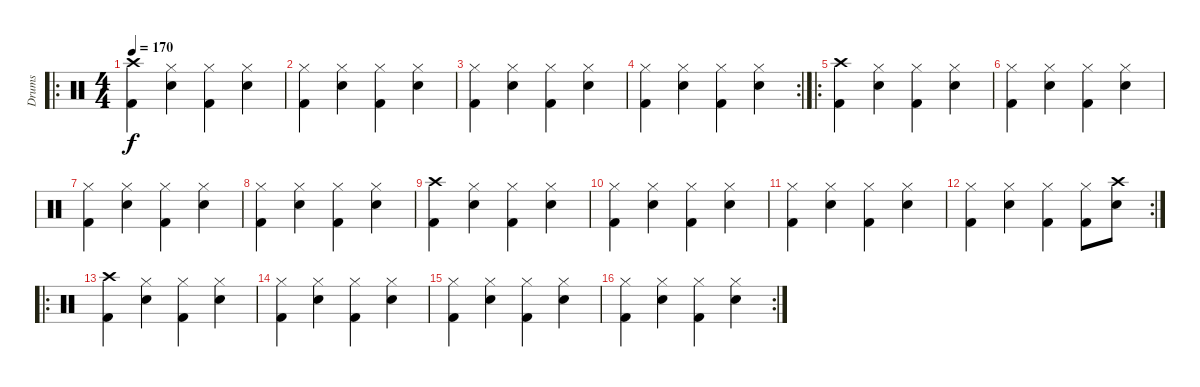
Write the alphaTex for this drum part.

\track ("Drums" "Drums") {instrument percussion}
\staff {score}
\articulation defaults
\ro
\ts (4 4)
\tempo 170
\clef neutral
\ks c
("Crash high (hit)" "Kick (hit) 2").4{dy f} ("Hi-Hat (closed)" "Snare (hit) 2").4 ("Hi-Hat (closed)" "Kick (hit) 2").4 ("Hi-Hat (closed)" "Snare (hit) 2").4 |
("Hi-Hat (closed)" "Kick (hit) 2").4 ("Hi-Hat (closed)" "Snare (hit) 2").4 ("Hi-Hat (closed)" "Kick (hit) 2").4 ("Hi-Hat (closed)" "Snare (hit) 2").4 |
("Hi-Hat (closed)" "Kick (hit) 2").4 ("Hi-Hat (closed)" "Snare (hit) 2").4 ("Hi-Hat (closed)" "Kick (hit) 2").4 ("Hi-Hat (closed)" "Snare (hit) 2").4 |
\rc 2
("Hi-Hat (closed)" "Kick (hit) 2").4 ("Hi-Hat (closed)" "Snare (hit) 2").4 ("Hi-Hat (closed)" "Kick (hit) 2").4 ("Hi-Hat (closed)" "Snare (hit) 2").4 |
\ro
("Crash high (hit)" "Kick (hit) 2").4 ("Hi-Hat (closed)" "Snare (hit) 2").4 ("Hi-Hat (closed)" "Kick (hit) 2").4 ("Hi-Hat (closed)" "Snare (hit) 2").4 |
("Hi-Hat (closed)" "Kick (hit) 2").4 ("Hi-Hat (closed)" "Snare (hit) 2").4 ("Hi-Hat (closed)" "Kick (hit) 2").4 ("Hi-Hat (closed)" "Snare (hit) 2").4 |
("Hi-Hat (closed)" "Kick (hit) 2").4 ("Hi-Hat (closed)" "Snare (hit) 2").4 ("Hi-Hat (closed)" "Kick (hit) 2").4 ("Hi-Hat (closed)" "Snare (hit) 2").4 |
("Hi-Hat (closed)" "Kick (hit) 2").4 ("Hi-Hat (closed)" "Snare (hit) 2").4 ("Hi-Hat (closed)" "Kick (hit) 2").4 ("Hi-Hat (closed)" "Snare (hit) 2").4 |
("Crash high (hit)" "Kick (hit) 2").4 ("Hi-Hat (closed)" "Snare (hit) 2").4 ("Hi-Hat (closed)" "Kick (hit) 2").4 ("Hi-Hat (closed)" "Snare (hit) 2").4 |
("Hi-Hat (closed)" "Kick (hit) 2").4 ("Hi-Hat (closed)" "Snare (hit) 2").4 ("Hi-Hat (closed)" "Kick (hit) 2").4 ("Hi-Hat (closed)" "Snare (hit) 2").4 |
("Hi-Hat (closed)" "Kick (hit) 2").4 ("Hi-Hat (closed)" "Snare (hit) 2").4 ("Hi-Hat (closed)" "Kick (hit) 2").4 ("Hi-Hat (closed)" "Snare (hit) 2").4 |
\rc 2
("Hi-Hat (closed)" "Kick (hit) 2").4 ("Hi-Hat (closed)" "Snare (hit) 2").4 ("Hi-Hat (closed)" "Kick (hit) 2").4 ("Hi-Hat (closed)" "Kick (hit) 2").8 ("Crash high (hit)" "Snare (hit) 2").8 |
\ro
("Crash high (hit)" "Kick (hit) 2").4 ("Hi-Hat (closed)" "Snare (hit) 2").4 ("Hi-Hat (closed)" "Kick (hit) 2").4 ("Hi-Hat (closed)" "Snare (hit) 2").4 |
("Hi-Hat (closed)" "Kick (hit) 2").4 ("Hi-Hat (closed)" "Snare (hit) 2").4 ("Hi-Hat (closed)" "Kick (hit) 2").4 ("Hi-Hat (closed)" "Snare (hit) 2").4 |
("Hi-Hat (closed)" "Kick (hit) 2").4 ("Hi-Hat (closed)" "Snare (hit) 2").4 ("Hi-Hat (closed)" "Kick (hit) 2").4 ("Hi-Hat (closed)" "Snare (hit) 2").4 |
\rc 2
("Hi-Hat (closed)" "Kick (hit) 2").4 ("Hi-Hat (closed)" "Snare (hit) 2").4 ("Hi-Hat (closed)" "Kick (hit) 2").4 ("Hi-Hat (closed)" "Snare (hit) 2").4
